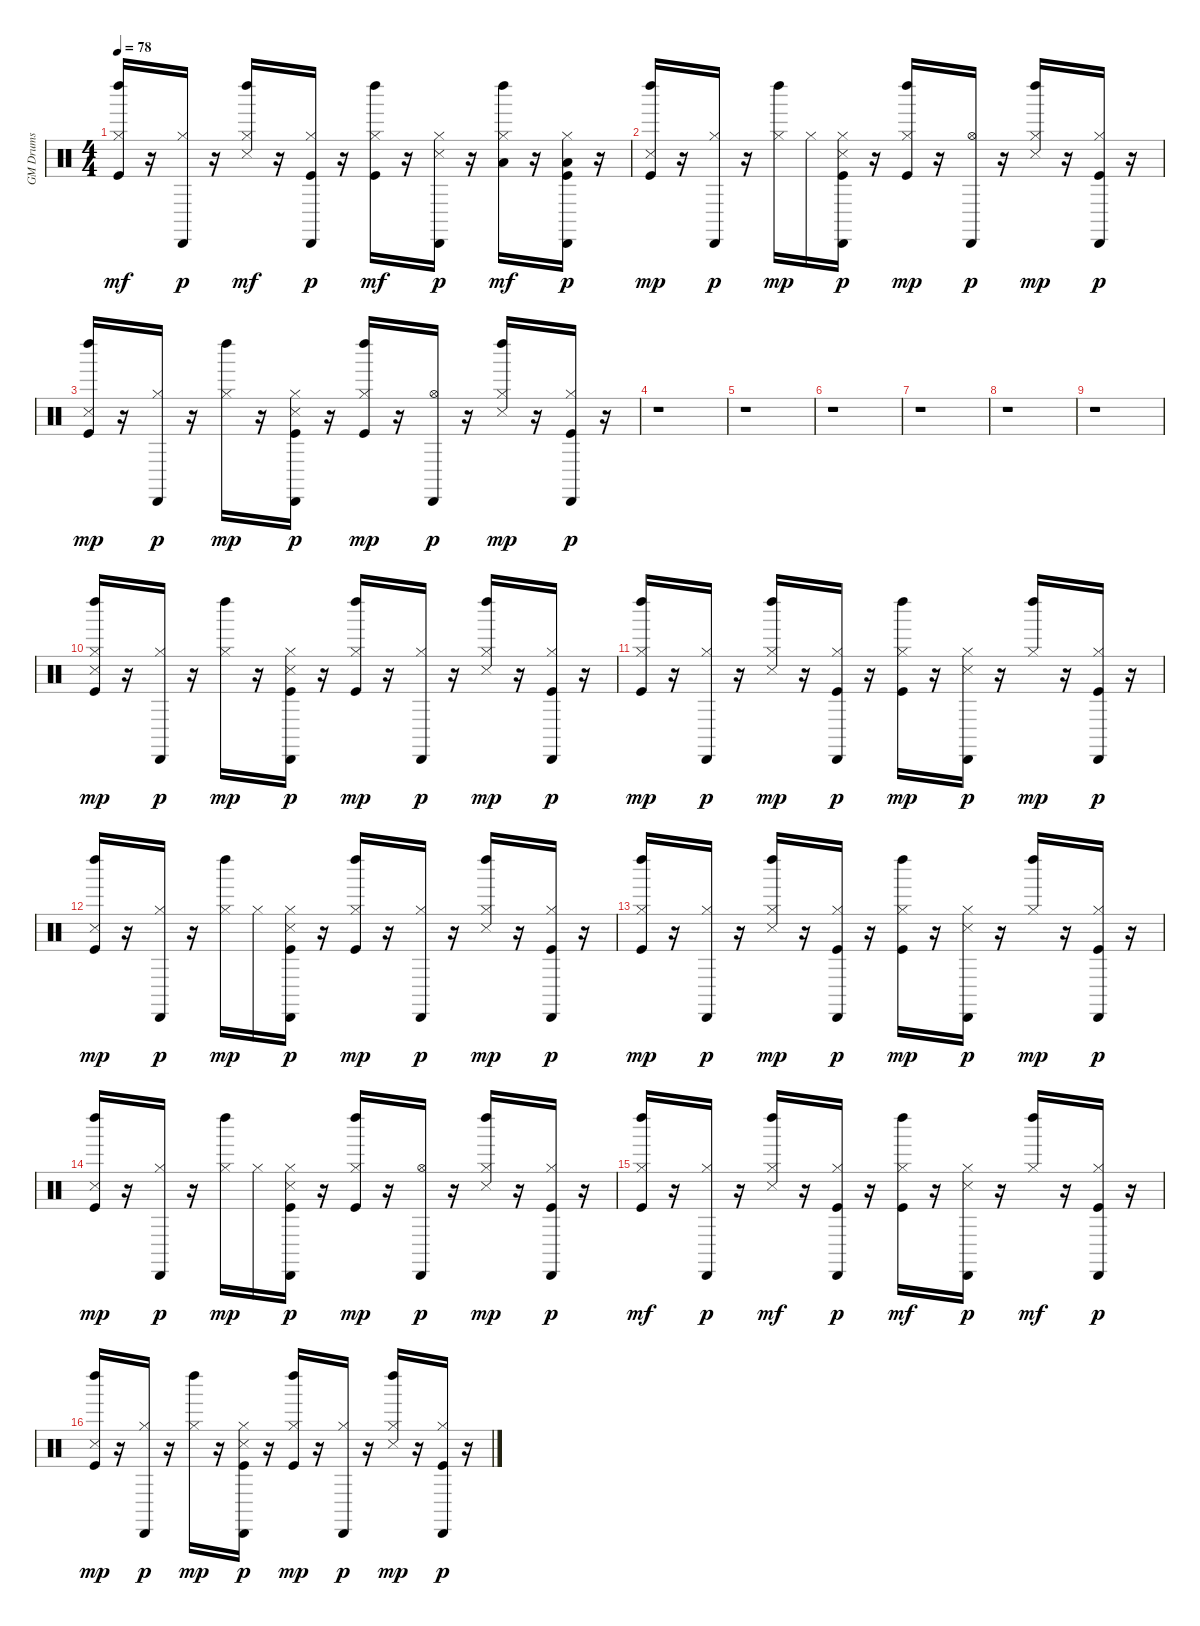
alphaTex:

\track ("GM Drums" "GM Drums") {instrument percussion}
\staff {score}
\articulation defaults
\ts (4 4)
\tempo 78
\clef neutral
\ks c
("Kick (hit)" "Hi-Hat (closed)" "Left Maraca (hit)").16{dy mf} r.16 ("Hi-Hat (closed)" "Cabasa (hit)").16{dy p} r.16 ("Snare (side stick) 3" "Hi-Hat (closed)" "Left Maraca (hit)").16{dy mf} r.16 ("Kick (hit)" "Hi-Hat (closed)" "Cabasa (hit)").16{dy p} r.16 ("Kick (hit)" "Hi-Hat (closed)" "Left Maraca (hit)").16{dy mf} r.16 ("Snare (side stick) 3" "Hi-Hat (closed)" "Cabasa (hit)").16{dy p} r.16 ("Hi-Hat (closed)" "Low Tom (hit)" "Left Maraca (hit)").16{dy mf} r.16 ("Kick (hit)" "Hi-Hat (closed)" "Low Tom (hit)" "Cabasa (hit)").16{dy p} r.16 |
("Kick (hit)" "Snare (side stick) 3" "Left Maraca (hit)").16{dy mp} r.16 ("Hi-Hat (closed)" "Cabasa (hit)").16{dy p} r.16 ("Hi-Hat (closed)" "Left Maraca (hit)").16{dy mp} "Hi-Hat (closed)".16 ("Kick (hit)" "Snare (side stick) 3" "Hi-Hat (closed)" "Cabasa (hit)").16{dy p} r.16 ("Kick (hit)" "Hi-Hat (closed)" "Left Maraca (hit)").16{dy mp} r.16 ("Hi-Hat (open)" "Cabasa (hit)").16{dy p} r.16 ("Snare (side stick) 3" "Hi-Hat (closed)" "Left Maraca (hit)").16{dy mp} r.16 ("Kick (hit)" "Hi-Hat (closed)" "Cabasa (hit)").16{dy p} r.16 |
("Kick (hit)" "Snare (side stick) 3" "Left Maraca (hit)").16{dy mp} r.16 ("Hi-Hat (closed)" "Cabasa (hit)").16{dy p} r.16 ("Hi-Hat (closed)" "Left Maraca (hit)").16{dy mp} r.16 ("Kick (hit)" "Snare (side stick) 3" "Hi-Hat (closed)" "Cabasa (hit)").16{dy p} r.16 ("Kick (hit)" "Hi-Hat (closed)" "Left Maraca (hit)").16{dy mp} r.16 ("Hi-Hat (open)" "Cabasa (hit)").16{dy p} r.16 ("Snare (side stick) 3" "Hi-Hat (closed)" "Left Maraca (hit)").16{dy mp} r.16 ("Kick (hit)" "Hi-Hat (closed)" "Cabasa (hit)").16{dy p} r.16 |
r.1 |
r.1 |
r.1 |
r.1 |
r.1 |
r.1 |
("Kick (hit)" "Snare (side stick) 3" "Hi-Hat (closed)" "Left Maraca (hit)").16{dy mp} r.16 ("Hi-Hat (closed)" "Cabasa (hit)").16{dy p} r.16 ("Hi-Hat (closed)" "Left Maraca (hit)").16{dy mp} r.16 ("Kick (hit)" "Snare (side stick) 3" "Hi-Hat (closed)" "Cabasa (hit)").16{dy p} r.16 ("Kick (hit)" "Hi-Hat (closed)" "Left Maraca (hit)").16{dy mp} r.16 ("Hi-Hat (closed)" "Cabasa (hit)").16{dy p} r.16 ("Snare (side stick) 3" "Hi-Hat (closed)" "Left Maraca (hit)").16{dy mp} r.16 ("Kick (hit)" "Hi-Hat (closed)" "Cabasa (hit)").16{dy p} r.16 |
("Kick (hit)" "Hi-Hat (closed)" "Left Maraca (hit)").16{dy mp} r.16 ("Hi-Hat (closed)" "Cabasa (hit)").16{dy p} r.16 ("Snare (side stick) 3" "Hi-Hat (closed)" "Left Maraca (hit)").16{dy mp} r.16 ("Kick (hit)" "Hi-Hat (closed)" "Cabasa (hit)").16{dy p} r.16 ("Kick (hit)" "Hi-Hat (closed)" "Left Maraca (hit)").16{dy mp} r.16 ("Snare (side stick) 3" "Hi-Hat (closed)" "Cabasa (hit)").16{dy p} r.16 ("Hi-Hat (closed)" "Left Maraca (hit)").16{dy mp} r.16 ("Kick (hit)" "Hi-Hat (closed)" "Cabasa (hit)").16{dy p} r.16 |
("Kick (hit)" "Snare (side stick) 3" "Left Maraca (hit)").16{dy mp} r.16 ("Hi-Hat (closed)" "Cabasa (hit)").16{dy p} r.16 ("Hi-Hat (closed)" "Left Maraca (hit)").16{dy mp} "Hi-Hat (closed)".16 ("Kick (hit)" "Snare (side stick) 3" "Hi-Hat (closed)" "Cabasa (hit)").16{dy p} r.16 ("Kick (hit)" "Hi-Hat (closed)" "Left Maraca (hit)").16{dy mp} r.16 ("Hi-Hat (closed)" "Cabasa (hit)").16{dy p} r.16 ("Snare (side stick) 3" "Hi-Hat (closed)" "Left Maraca (hit)").16{dy mp} r.16 ("Kick (hit)" "Hi-Hat (closed)" "Cabasa (hit)").16{dy p} r.16 |
("Kick (hit)" "Hi-Hat (closed)" "Left Maraca (hit)").16{dy mp} r.16 ("Hi-Hat (closed)" "Cabasa (hit)").16{dy p} r.16 ("Snare (side stick) 3" "Hi-Hat (closed)" "Left Maraca (hit)").16{dy mp} r.16 ("Kick (hit)" "Hi-Hat (closed)" "Cabasa (hit)").16{dy p} r.16 ("Kick (hit)" "Hi-Hat (closed)" "Left Maraca (hit)").16{dy mp} r.16 ("Snare (side stick) 3" "Hi-Hat (closed)" "Cabasa (hit)").16{dy p} r.16 ("Hi-Hat (closed)" "Left Maraca (hit)").16{dy mp} r.16 ("Kick (hit)" "Hi-Hat (closed)" "Cabasa (hit)").16{dy p} r.16 |
("Kick (hit)" "Snare (side stick) 3" "Left Maraca (hit)").16{dy mp} r.16 ("Hi-Hat (closed)" "Cabasa (hit)").16{dy p} r.16 ("Hi-Hat (closed)" "Left Maraca (hit)").16{dy mp} "Hi-Hat (closed)".16 ("Kick (hit)" "Snare (side stick) 3" "Hi-Hat (closed)" "Cabasa (hit)").16{dy p} r.16 ("Kick (hit)" "Hi-Hat (closed)" "Left Maraca (hit)").16{dy mp} r.16 ("Hi-Hat (open)" "Cabasa (hit)").16{dy p} r.16 ("Snare (side stick) 3" "Hi-Hat (closed)" "Left Maraca (hit)").16{dy mp} r.16 ("Kick (hit)" "Hi-Hat (closed)" "Cabasa (hit)").16{dy p} r.16 |
("Kick (hit)" "Hi-Hat (closed)" "Left Maraca (hit)").16{dy mf} r.16 ("Hi-Hat (closed)" "Cabasa (hit)").16{dy p} r.16 ("Snare (side stick) 3" "Hi-Hat (closed)" "Left Maraca (hit)").16{dy mf} r.16 ("Kick (hit)" "Hi-Hat (closed)" "Cabasa (hit)").16{dy p} r.16 ("Kick (hit)" "Hi-Hat (closed)" "Left Maraca (hit)").16{dy mf} r.16 ("Snare (side stick) 3" "Hi-Hat (closed)" "Cabasa (hit)").16{dy p} r.16 ("Hi-Hat (closed)" "Left Maraca (hit)").16{dy mf} r.16 ("Kick (hit)" "Hi-Hat (closed)" "Cabasa (hit)").16{dy p} r.16 |
("Kick (hit)" "Snare (side stick) 3" "Left Maraca (hit)").16{dy mp} r.16 ("Hi-Hat (closed)" "Cabasa (hit)").16{dy p} r.16 ("Hi-Hat (closed)" "Left Maraca (hit)").16{dy mp} r.16 ("Kick (hit)" "Snare (side stick) 3" "Hi-Hat (closed)" "Cabasa (hit)").16{dy p} r.16 ("Kick (hit)" "Hi-Hat (closed)" "Left Maraca (hit)").16{dy mp} r.16 ("Hi-Hat (closed)" "Cabasa (hit)").16{dy p} r.16 ("Snare (side stick) 3" "Hi-Hat (closed)" "Left Maraca (hit)").16{dy mp} r.16 ("Kick (hit)" "Hi-Hat (closed)" "Cabasa (hit)").16{dy p} r.16
